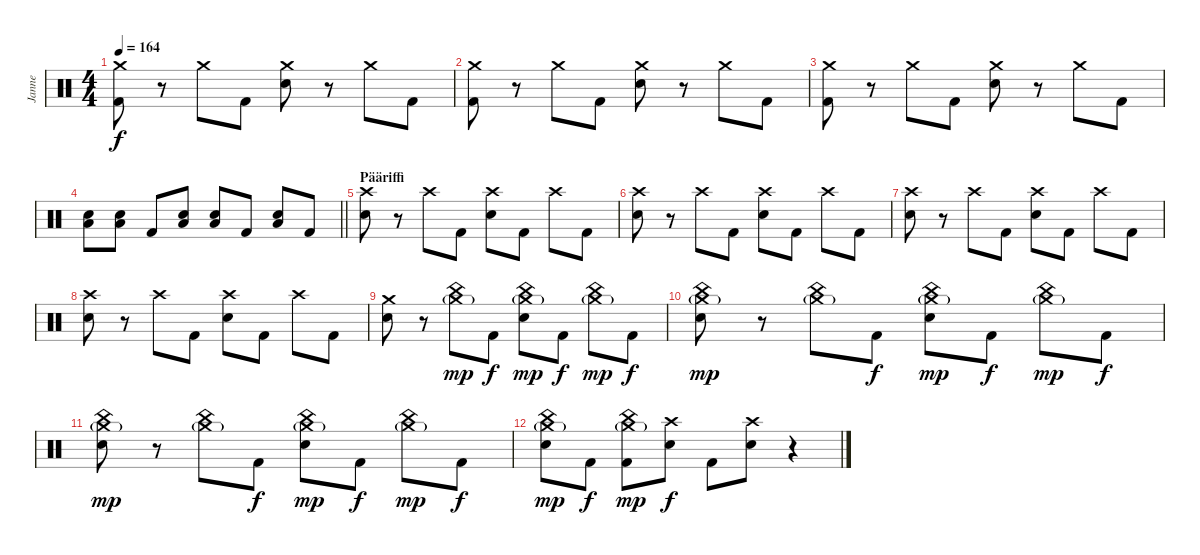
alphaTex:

\track ("Janne" "Janne") {instrument percussion}
\staff {score}
\articulation defaults
\ts (4 4)
\tempo 164
\clef neutral
\ks c
("Crash medium (hit)" "Kick (hit) 2").8{dy f} r.8 "Crash medium (hit)".8 "Kick (hit) 2".8 ("Crash medium (hit)" "Electric Snare (hit)").8 r.8 "Crash medium (hit)".8 "Kick (hit) 2".8 |
("Crash medium (hit)" "Kick (hit) 2").8 r.8 "Crash medium (hit)".8 "Kick (hit) 2".8 ("Crash medium (hit)" "Electric Snare (hit)").8 r.8 "Crash medium (hit)".8 "Kick (hit) 2".8 |
("Crash medium (hit)" "Kick (hit) 2").8 r.8 "Crash medium (hit)".8 "Kick (hit) 2".8 ("Crash medium (hit)" "Electric Snare (hit)").8 r.8 "Crash medium (hit)".8 "Kick (hit) 2".8 |
\barLineRight lightlight
("Electric Snare (hit)" "Low Floor Tom (hit)").8 ("Electric Snare (hit)" "Low Floor Tom (hit)").8 "Kick (hit) 2".8 ("Electric Snare (hit)" "Low Floor Tom (hit)").8 ("Electric Snare (hit)" "Low Floor Tom (hit)").8 "Kick (hit) 2".8 ("Electric Snare (hit)" "Low Floor Tom (hit)").8 "Kick (hit) 2".8 |
\section ("" "Pääriffi")
("Crash high (hit)" "Electric Snare (hit)").8 r.8 "Crash high (hit)".8 "Kick (hit) 2".8 ("Crash high (hit)" "Electric Snare (hit)").8 "Kick (hit) 2".8 "Crash high (hit)".8 "Kick (hit) 2".8 |
("Crash high (hit)" "Electric Snare (hit)").8 r.8 "Crash high (hit)".8 "Kick (hit) 2".8 ("Crash high (hit)" "Electric Snare (hit)").8 "Kick (hit) 2".8 "Crash high (hit)".8 "Kick (hit) 2".8 |
("Crash high (hit)" "Electric Snare (hit)").8 r.8 "Crash high (hit)".8 "Kick (hit) 2".8 ("Crash high (hit)" "Electric Snare (hit)").8 "Kick (hit) 2".8 "Crash high (hit)".8 "Kick (hit) 2".8 |
("Crash high (hit)" "Electric Snare (hit)").8 r.8 "Crash high (hit)".8 "Kick (hit) 2".8 ("Crash high (hit)" "Electric Snare (hit)").8 "Kick (hit) 2".8 "Crash high (hit)".8 "Kick (hit) 2".8 |
("Crash medium (hit)" "Electric Snare (hit)").8 r.8 ("China (hit)" "Crash medium (hit)"{g}).8{dy mp} "Kick (hit) 2".8{dy f} ("China (hit)" "Electric Snare (hit)" "Crash medium (hit)"{g}).8{dy mp} "Kick (hit) 2".8{dy f} ("China (hit)" "Crash medium (hit)"{g}).8{dy mp} "Kick (hit) 2".8{dy f} |
("China (hit)" "Electric Snare (hit)" "Crash medium (hit)"{g}).8{dy mp} r.8 ("China (hit)" "Crash medium (hit)"{g}).8 "Kick (hit) 2".8{dy f} ("China (hit)" "Electric Snare (hit)" "Crash medium (hit)"{g}).8{dy mp} "Kick (hit) 2".8{dy f} ("China (hit)" "Crash medium (hit)"{g}).8{dy mp} "Kick (hit) 2".8{dy f} |
("China (hit)" "Electric Snare (hit)" "Crash medium (hit)"{g}).8{dy mp} r.8 ("China (hit)" "Crash medium (hit)"{g}).8 "Kick (hit) 2".8{dy f} ("China (hit)" "Electric Snare (hit)" "Crash medium (hit)"{g}).8{dy mp} "Kick (hit) 2".8{dy f} ("China (hit)" "Crash medium (hit)"{g}).8{dy mp} "Kick (hit) 2".8{dy f} |
("China (hit)" "Electric Snare (hit)" "Crash medium (hit)"{g}).8{dy mp} "Kick (hit) 2".8{dy f} ("China (hit)" "Kick (hit) 2" "Crash medium (hit)"{g}).8{dy mp} ("Crash high (hit)" "Electric Snare (hit)").8{dy f} "Kick (hit) 2".8 ("Crash high (hit)" "Electric Snare (hit)").8 r.4
